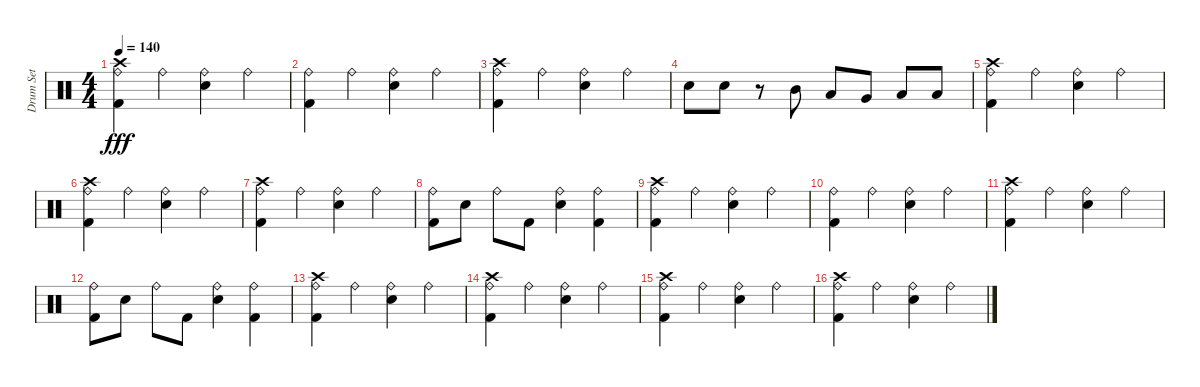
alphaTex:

\track ("Drum Set" "Drum Set") {instrument percussion}
\staff {score}
\articulation defaults
\ts (4 4)
\tempo 140
\clef neutral
\ks c
("Kick (hit) 2" "Crash high (hit)" "Ride (bell)").4{dy fff} "Ride (bell)".4 ("Electric Snare (hit)" "Ride (bell)").4 "Ride (bell)".4 |
("Kick (hit) 2" "Ride (bell)").4 "Ride (bell)".4 ("Electric Snare (hit)" "Ride (bell)").4 "Ride (bell)".4 |
("Kick (hit) 2" "Crash high (hit)" "Ride (bell)").4 "Ride (bell)".4 ("Electric Snare (hit)" "Ride (bell)").4 "Ride (bell)".4 |
"Electric Snare (hit)".8 "Electric Snare (hit)".8 r.8 "Mid Tom (hit)".8 "Low Tom (hit)".8 "Very Low Tom (hit)".8 "Low Floor Tom (hit)".8 "Low Floor Tom (hit)".8 |
("Kick (hit) 2" "Crash high (hit)" "Ride (bell)").4 "Ride (bell)".4 ("Electric Snare (hit)" "Ride (bell)").4 "Ride (bell)".4 |
("Kick (hit) 2" "Ride (bell)" "Crash high (hit)").4 "Ride (bell)".4 ("Electric Snare (hit)" "Ride (bell)").4 "Ride (bell)".4 |
("Kick (hit) 2" "Ride (bell)" "Crash high (hit)").4 "Ride (bell)".4 ("Electric Snare (hit)" "Ride (bell)").4 "Ride (bell)".4 |
("Kick (hit) 2" "Ride (bell)").8 "Electric Snare (hit)".8 "Ride (bell)".8 "Kick (hit) 2".8 ("Electric Snare (hit)" "Ride (bell)").4 ("Ride (bell)" "Kick (hit) 2").4 |
("Kick (hit) 2" "Crash high (hit)" "Ride (bell)").4 "Ride (bell)".4 ("Electric Snare (hit)" "Ride (bell)").4 "Ride (bell)".4 |
("Kick (hit) 2" "Ride (bell)").4 "Ride (bell)".4 ("Electric Snare (hit)" "Ride (bell)").4 "Ride (bell)".4 |
("Kick (hit) 2" "Crash high (hit)" "Ride (bell)").4 "Ride (bell)".4 ("Electric Snare (hit)" "Ride (bell)").4 "Ride (bell)".4 |
("Kick (hit) 2" "Ride (bell)").8 "Electric Snare (hit)".8 "Ride (bell)".8 "Kick (hit) 2".8 ("Electric Snare (hit)" "Ride (bell)").4 ("Kick (hit) 2" "Ride (bell)").4 |
("Kick (hit) 2" "Crash high (hit)" "Ride (bell)").4 "Ride (bell)".4 ("Electric Snare (hit)" "Ride (bell)").4 "Ride (bell)".4 |
("Kick (hit) 2" "Crash high (hit)" "Ride (bell)").4 "Ride (bell)".4 ("Electric Snare (hit)" "Ride (bell)").4 "Ride (bell)".4 |
("Kick (hit) 2" "Ride (bell)" "Crash high (hit)").4 "Ride (bell)".4 ("Electric Snare (hit)" "Ride (bell)").4 "Ride (bell)".4 |
("Kick (hit) 2" "Ride (bell)" "Crash high (hit)").4 "Ride (bell)".4 ("Electric Snare (hit)" "Ride (bell)").4 "Ride (bell)".4
